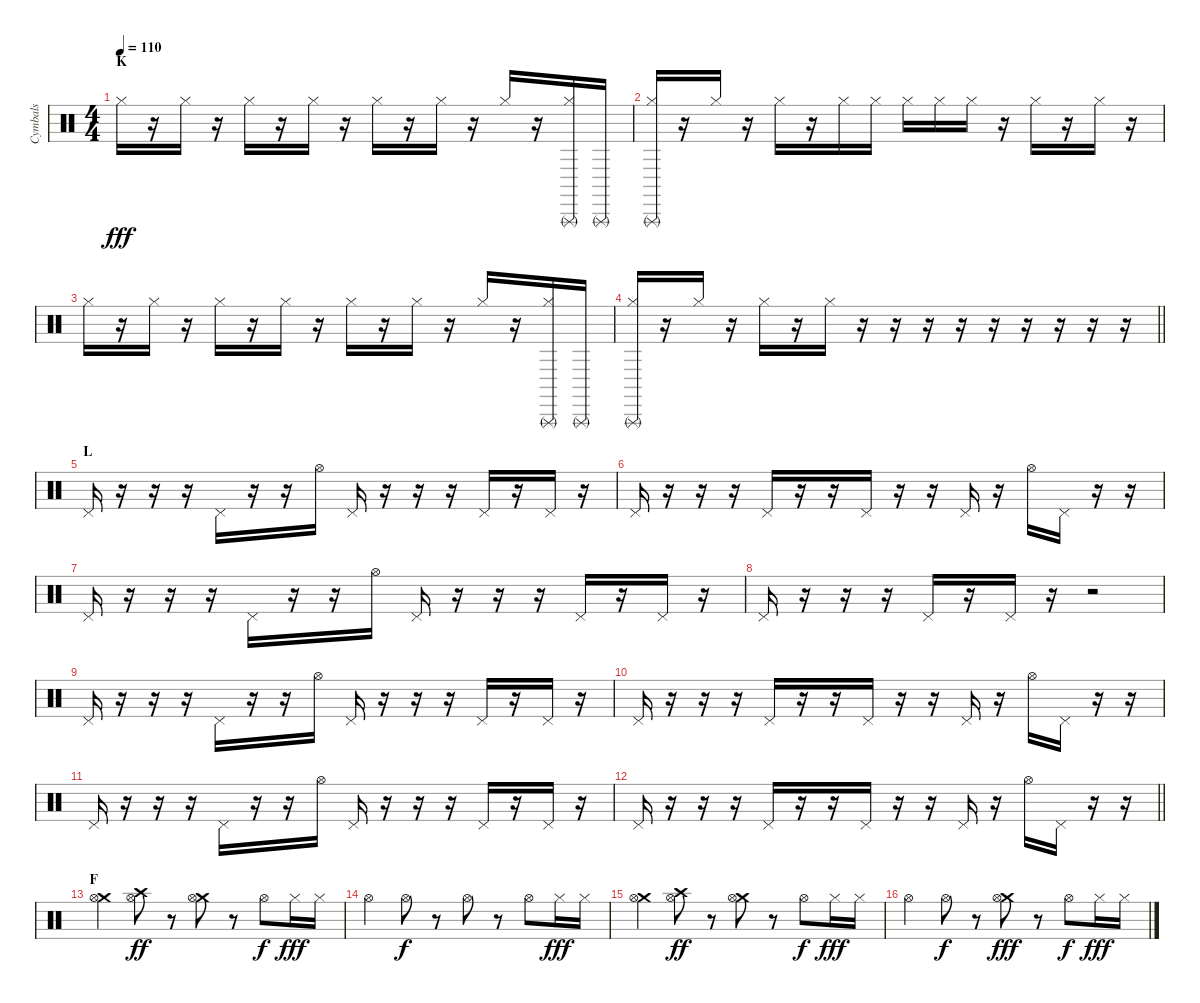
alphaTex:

\track ("Cymbals" "Cymbals") {instrument percussion}
\staff {score}
\articulation defaults
\ts (4 4)
\section ("" "K")
\tempo 110
\clef neutral
\ks c "Hi-Hat (closed)".16{dy fff}
r.16 "Hi-Hat (closed)".16 r.16 "Hi-Hat (closed)".16 r.16 "Hi-Hat (closed)".16 r.16 "Hi-Hat (closed)".16 r.16 "Hi-Hat (closed)".16 r.16 "Hi-Hat (closed)".16 r.16 ("Triangle (rnute)" "Hi-Hat (closed)").16 "Triangle (rnute)".16 |
("Triangle (rnute)" "Hi-Hat (closed)").16 r.16 "Hi-Hat (closed)".16 r.16 "Hi-Hat (closed)".16 r.16 "Hi-Hat (closed)".16 "Hi-Hat (closed)".16 "Hi-Hat (closed)".16 "Hi-Hat (closed)".16 "Hi-Hat (closed)".16 r.16 "Hi-Hat (closed)".16 r.16 "Hi-Hat (closed)".16 r.16 |
"Hi-Hat (closed)".16 r.16 "Hi-Hat (closed)".16 r.16 "Hi-Hat (closed)".16 r.16 "Hi-Hat (closed)".16 r.16 "Hi-Hat (closed)".16 r.16 "Hi-Hat (closed)".16 r.16 "Hi-Hat (closed)".16 r.16 ("Triangle (rnute)" "Hi-Hat (closed)").16 "Triangle (rnute)".16 |
\barLineRight lightlight
("Triangle (rnute)" "Hi-Hat (closed)").16 r.16 "Hi-Hat (closed)".16 r.16 "Hi-Hat (closed)".16 r.16 "Hi-Hat (closed)".16 r.16 r.16 r.16 r.16 r.16 r.16 r.16 r.16 r.16 |
\section ("" "L ")
"Pedal Hi-Hat (hit)".16 r.16 r.16 r.16 "Pedal Hi-Hat (hit)".16 r.16 r.16 "Hi-Hat (open)".16 "Pedal Hi-Hat (hit)".16 r.16 r.16 r.16 "Pedal Hi-Hat (hit)".16 r.16 "Pedal Hi-Hat (hit)".16 r.16 |
"Pedal Hi-Hat (hit)".16 r.16 r.16 r.16 "Pedal Hi-Hat (hit)".16 r.16 r.16 "Pedal Hi-Hat (hit)".16 r.16 r.16 "Pedal Hi-Hat (hit)".16 r.16 "Hi-Hat (open)".16 "Pedal Hi-Hat (hit)".16 r.16 r.16 |
"Pedal Hi-Hat (hit)".16 r.16 r.16 r.16 "Pedal Hi-Hat (hit)".16 r.16 r.16 "Hi-Hat (open)".16 "Pedal Hi-Hat (hit)".16 r.16 r.16 r.16 "Pedal Hi-Hat (hit)".16 r.16 "Pedal Hi-Hat (hit)".16 r.16 |
"Pedal Hi-Hat (hit)".16 r.16 r.16 r.16 "Pedal Hi-Hat (hit)".16 r.16 "Pedal Hi-Hat (hit)".16 r.16 r.2 |
"Pedal Hi-Hat (hit)".16 r.16 r.16 r.16 "Pedal Hi-Hat (hit)".16 r.16 r.16 "Hi-Hat (open)".16 "Pedal Hi-Hat (hit)".16 r.16 r.16 r.16 "Pedal Hi-Hat (hit)".16 r.16 "Pedal Hi-Hat (hit)".16 r.16 |
"Pedal Hi-Hat (hit)".16 r.16 r.16 r.16 "Pedal Hi-Hat (hit)".16 r.16 r.16 "Pedal Hi-Hat (hit)".16 r.16 r.16 "Pedal Hi-Hat (hit)".16 r.16 "Hi-Hat (open)".16 "Pedal Hi-Hat (hit)".16 r.16 r.16 |
"Pedal Hi-Hat (hit)".16 r.16 r.16 r.16 "Pedal Hi-Hat (hit)".16 r.16 r.16 "Hi-Hat (open)".16 "Pedal Hi-Hat (hit)".16 r.16 r.16 r.16 "Pedal Hi-Hat (hit)".16 r.16 "Pedal Hi-Hat (hit)".16 r.16 |
\barLineRight lightlight "Pedal Hi-Hat (hit)".16
r.16 r.16 r.16 "Pedal Hi-Hat (hit)".16 r.16 r.16 "Pedal Hi-Hat (hit)".16 r.16 r.16 "Pedal Hi-Hat (hit)".16 r.16 "Hi-Hat (open)".16 "Pedal Hi-Hat (hit)".16 r.16 r.16 |
\section ("" "F")
("Crash medium (hit)" "Hi-Hat (open)").4 ("Crash high (hit)" "Hi-Hat (open)").8{dy ff} r.8 ("Crash medium (hit)" "Hi-Hat (open)").8 r.8 "Hi-Hat (open)".8{dy f} "Hi-Hat (closed)".16{dy fff} "Hi-Hat (closed)".16 |
"Hi-Hat (open)".4 "Hi-Hat (open)".8{dy f} r.8 "Hi-Hat (open)".8 r.8 "Hi-Hat (open)".8 "Hi-Hat (closed)".16{dy fff} "Hi-Hat (closed)".16 |
("Crash medium (hit)" "Hi-Hat (open)").4 ("Crash high (hit)" "Hi-Hat (open)").8{dy ff} r.8 ("Crash medium (hit)" "Hi-Hat (open)").8 r.8 "Hi-Hat (open)".8{dy f} "Hi-Hat (closed)".16{dy fff} "Hi-Hat (closed)".16 |
"Hi-Hat (open)".4 "Hi-Hat (open)".8{dy f} r.8 ("Crash medium (hit)" "Hi-Hat (open)").8{dy fff} r.8 "Hi-Hat (open)".8{dy f} "Hi-Hat (closed)".16{dy fff} "Hi-Hat (closed)".16
